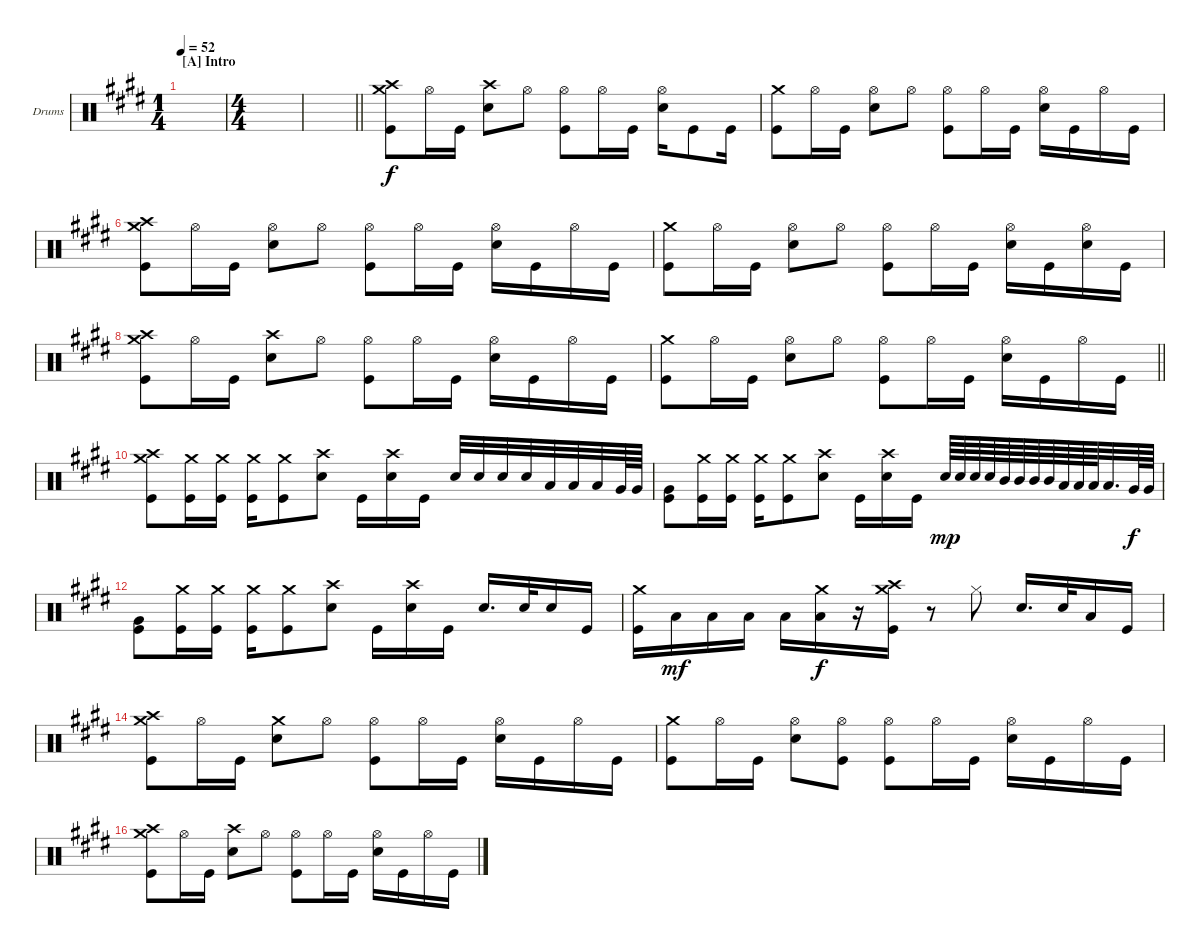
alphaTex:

\bracketExtendMode nobrackets
\firstSystemTrackNameOrientation horizontal
\otherSystemsTrackNameOrientation horizontal
\defaultBarNumberDisplay FirstOfSystem
\track ("Drumkit" "Drums") {instrument percussion}
\staff {score}
\articulation defaults
\ts (1 4)
\section ("A" "Intro")
\tempo 52
\clef neutral
\ks c#minor
|
\ts (4 4)
|
\barLineRight lightlight
|
("Crash medium (hit)" "Crash high (hit)" "Kick (hit)").8 "Hi-Hat (open)".16 "Kick (hit)".16 ("Crash high (hit)" "Snare (hit) 2").8 "Hi-Hat (open)".8 ("Hi-Hat (open)" "Kick (hit)").8 "Hi-Hat (open)".16 "Kick (hit)".16 ("Hi-Hat (open)" "Snare (hit) 2").16 "Kick (hit)".8 "Kick (hit)".16 |
("Crash medium (hit)" "Kick (hit)").8 "Hi-Hat (open)".16 "Kick (hit)".16 ("Hi-Hat (open)" "Snare (hit) 2").8 "Hi-Hat (open)".8 ("Hi-Hat (open)" "Kick (hit)").8 "Hi-Hat (open)".16 "Kick (hit)".16 ("Hi-Hat (open)" "Snare (hit) 2").16 "Kick (hit)".16 "Hi-Hat (open)".16 "Kick (hit)".16 |
("Crash medium (hit)" "Crash high (hit)" "Kick (hit)").8 "Hi-Hat (open)".16 "Kick (hit)".16 ("Hi-Hat (open)" "Snare (hit) 2").8 "Hi-Hat (open)".8 ("Hi-Hat (open)" "Kick (hit)").8 "Hi-Hat (open)".16 "Kick (hit)".16 ("Hi-Hat (open)" "Snare (hit) 2").16 "Kick (hit)".16 "Hi-Hat (open)".16 "Kick (hit)".16 |
("Crash medium (hit)" "Kick (hit)").8 "Hi-Hat (open)".16 "Kick (hit)".16 ("Hi-Hat (open)" "Snare (hit) 2").8 "Hi-Hat (open)".8 ("Hi-Hat (open)" "Kick (hit)").8 "Hi-Hat (open)".16 "Kick (hit)".16 ("Hi-Hat (open)" "Snare (hit) 2").16 "Kick (hit)".16 ("Hi-Hat (open)" "Snare (hit) 2").16 "Kick (hit)".16 |
("Crash medium (hit)" "Crash high (hit)" "Kick (hit)").8 "Hi-Hat (open)".16 "Kick (hit)".16 ("Crash high (hit)" "Snare (hit) 2").8 "Hi-Hat (open)".8 ("Hi-Hat (open)" "Kick (hit)").8 "Hi-Hat (open)".16 "Kick (hit)".16 ("Hi-Hat (open)" "Snare (hit) 2").16 "Kick (hit)".16 "Hi-Hat (open)".16 "Kick (hit)".16 |
\barLineRight lightlight
("Crash medium (hit)" "Kick (hit)").8 "Hi-Hat (open)".16 "Kick (hit)".16 ("Hi-Hat (open)" "Snare (hit) 2").8 "Hi-Hat (open)".8 ("Hi-Hat (open)" "Kick (hit)").8 "Hi-Hat (open)".16 "Kick (hit)".16 ("Hi-Hat (open)" "Snare (hit) 2").16 "Kick (hit)".16 "Hi-Hat (open)".16 "Kick (hit)".16 |
("Crash medium (hit)" "Crash high (hit)" "Kick (hit)").8 ("Crash medium (hit)" "Kick (hit)").16 ("Crash medium (hit)" "Kick (hit)").16 ("Crash medium (hit)" "Kick (hit)").16 ("Crash medium (hit)" "Kick (hit)").8 ("Crash high (hit)" "Snare (hit) 2").8 "Kick (hit)".16 ("Crash high (hit)" "Snare (hit) 2").16 "Kick (hit)".16 "Snare (hit) 2".32 "Snare (hit) 2".32 "Snare (hit) 2".32 "Snare (hit) 2".32 "Low Tom (hit)".32 "Low Tom (hit)".32 "Low Tom (hit)".32 "Very Low Tom (hit)".64 "Very Low Tom (hit)".64 |
("Very Low Tom (hit)" "Kick (hit)").8 ("Crash medium (hit)" "Kick (hit)").16 ("Crash medium (hit)" "Kick (hit)").16 ("Crash medium (hit)" "Kick (hit)").16 ("Crash medium (hit)" "Kick (hit)").8 ("Crash high (hit)" "Snare (hit) 2").8 "Kick (hit)".16 ("Crash high (hit)" "Snare (hit) 2").16 "Kick (hit)".16 "Snare (hit) 2".64{dy mp} "Snare (hit) 2".64 "Snare (hit) 2".64 "Snare (hit) 2".64 "Mid Tom (hit)".64 "Mid Tom (hit)".64 "Mid Tom (hit)".64 "Mid Tom (hit)".64 "Low Tom (hit)".64 "Low Tom (hit)".64 "Low Tom (hit)".64 "Low Tom (hit)".32{d} "Very Low Tom (hit)".64{dy f} "Very Low Tom (hit)".64 |
("Very Low Tom (hit)" "Kick (hit)").8 ("Crash medium (hit)" "Kick (hit)").16 ("Crash medium (hit)" "Kick (hit)").16 ("Crash medium (hit)" "Kick (hit)").16 ("Crash medium (hit)" "Kick (hit)").8 ("Crash high (hit)" "Snare (hit) 2").8 "Kick (hit)".16 ("Crash high (hit)" "Snare (hit) 2").16 "Kick (hit)".16 "Snare (hit) 2".16{d} "Snare (hit) 2".32 "Snare (hit) 2".16 "Kick (hit)".16 |
("Crash medium (hit)" "Kick (hit)").16 "Low Tom (hit)".16{dy mf} "Low Tom (hit)".16 "Low Tom (hit)".16 "Low Tom (hit)".16 ("Crash medium (hit)" "Low Tom (hit)").16{dy f} r.16 ("Crash medium (hit)" "Crash high (hit)" "Kick (hit)").16 r.8 "Hi-Hat (closed)".8 "Snare (hit) 2".16{d} "Snare (hit) 2".32 "Low Tom (hit)".16 "Kick (hit)".16 |
("Crash medium (hit)" "Crash high (hit)" "Kick (hit)").8 "Hi-Hat (open)".16 "Kick (hit)".16 ("Snare (hit) 2" "Crash medium (hit)").8 "Hi-Hat (open)".8 ("Hi-Hat (open)" "Kick (hit)").8 "Hi-Hat (open)".16 "Kick (hit)".16 ("Hi-Hat (open)" "Snare (hit) 2").16 "Kick (hit)".16 "Hi-Hat (open)".16 "Kick (hit)".16 |
("Crash medium (hit)" "Kick (hit)").8 "Hi-Hat (open)".16 "Kick (hit)".16 ("Hi-Hat (open)" "Snare (hit) 2").8 ("Hi-Hat (open)" "Kick (hit)").8 ("Hi-Hat (open)" "Kick (hit)").8 "Hi-Hat (open)".16 "Kick (hit)".16 ("Hi-Hat (open)" "Snare (hit) 2").16 "Kick (hit)".16 "Hi-Hat (open)".16 "Kick (hit)".16 |
("Crash medium (hit)" "Crash high (hit)" "Kick (hit)").8 "Hi-Hat (open)".16 "Kick (hit)".16 ("Crash high (hit)" "Snare (hit) 2").8 "Hi-Hat (open)".8 ("Hi-Hat (open)" "Kick (hit)").8 "Hi-Hat (open)".16 "Kick (hit)".16 ("Hi-Hat (open)" "Snare (hit) 2").16 "Kick (hit)".16 "Hi-Hat (open)".16 "Kick (hit)".16
